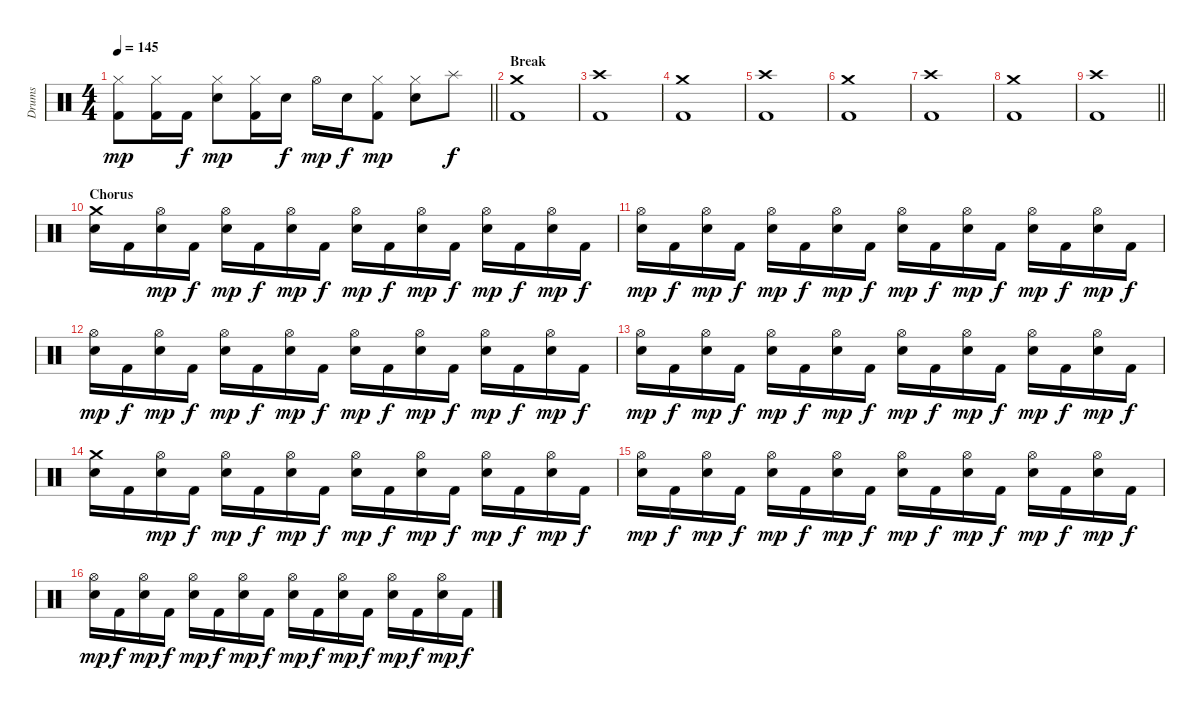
\track ("Drums" "Drums") {instrument percussion}
\staff {score}
\articulation defaults
\ts (4 4)
\tempo 145
\clef neutral
\barLineRight lightlight
\ks c
("Hi-Hat (closed)" "Kick (hit) 2").8{dy mp} ("Hi-Hat (closed)" "Kick (hit) 2").16 "Kick (hit) 2".16{dy f} ("Hi-Hat (closed)" "Snare (hit) 2").8{dy mp} ("Hi-Hat (closed)" "Kick (hit) 2").16 "Snare (hit) 2".16{dy f} "Hi-Hat (open)".16{dy mp} "Snare (hit) 2".16{dy f} ("Hi-Hat (closed)" "Kick (hit) 2").8{dy mp} ("Hi-Hat (closed)" "Snare (hit) 2").8 "Splash (hit)".8{dy f} |
\section ("" "Break")
("Crash medium (hit)" "Kick (hit) 2").1 |
("Crash high (hit)" "Kick (hit) 2").1 |
("Crash medium (hit)" "Kick (hit) 2").1 |
("Crash high (hit)" "Kick (hit) 2").1 |
("Crash medium (hit)" "Kick (hit) 2").1 |
("Crash high (hit)" "Kick (hit) 2").1 |
("Crash medium (hit)" "Kick (hit) 2").1 |
\barLineRight lightlight
("Crash high (hit)" "Kick (hit) 2").1 |
\section ("" "Chorus")
("Crash medium (hit)" "Snare (hit) 2").16 "Kick (hit) 2".16 ("Hi-Hat (open)" "Snare (hit) 2").16{dy mp} "Kick (hit) 2".16{dy f} ("Hi-Hat (open)" "Snare (hit) 2").16{dy mp} "Kick (hit) 2".16{dy f} ("Hi-Hat (open)" "Snare (hit) 2").16{dy mp} "Kick (hit) 2".16{dy f} ("Hi-Hat (open)" "Snare (hit) 2").16{dy mp} "Kick (hit) 2".16{dy f} ("Hi-Hat (open)" "Snare (hit) 2").16{dy mp} "Kick (hit) 2".16{dy f} ("Hi-Hat (open)" "Snare (hit) 2").16{dy mp} "Kick (hit) 2".16{dy f} ("Hi-Hat (open)" "Snare (hit) 2").16{dy mp} "Kick (hit) 2".16{dy f} |
("Hi-Hat (open)" "Snare (hit) 2").16{dy mp} "Kick (hit) 2".16{dy f} ("Hi-Hat (open)" "Snare (hit) 2").16{dy mp} "Kick (hit) 2".16{dy f} ("Hi-Hat (open)" "Snare (hit) 2").16{dy mp} "Kick (hit) 2".16{dy f} ("Hi-Hat (open)" "Snare (hit) 2").16{dy mp} "Kick (hit) 2".16{dy f} ("Hi-Hat (open)" "Snare (hit) 2").16{dy mp} "Kick (hit) 2".16{dy f} ("Hi-Hat (open)" "Snare (hit) 2").16{dy mp} "Kick (hit) 2".16{dy f} ("Hi-Hat (open)" "Snare (hit) 2").16{dy mp} "Kick (hit) 2".16{dy f} ("Hi-Hat (open)" "Snare (hit) 2").16{dy mp} "Kick (hit) 2".16{dy f} |
("Hi-Hat (open)" "Snare (hit) 2").16{dy mp} "Kick (hit) 2".16{dy f} ("Hi-Hat (open)" "Snare (hit) 2").16{dy mp} "Kick (hit) 2".16{dy f} ("Hi-Hat (open)" "Snare (hit) 2").16{dy mp} "Kick (hit) 2".16{dy f} ("Hi-Hat (open)" "Snare (hit) 2").16{dy mp} "Kick (hit) 2".16{dy f} ("Hi-Hat (open)" "Snare (hit) 2").16{dy mp} "Kick (hit) 2".16{dy f} ("Hi-Hat (open)" "Snare (hit) 2").16{dy mp} "Kick (hit) 2".16{dy f} ("Hi-Hat (open)" "Snare (hit) 2").16{dy mp} "Kick (hit) 2".16{dy f} ("Hi-Hat (open)" "Snare (hit) 2").16{dy mp} "Kick (hit) 2".16{dy f} |
("Hi-Hat (open)" "Snare (hit) 2").16{dy mp} "Kick (hit) 2".16{dy f} ("Hi-Hat (open)" "Snare (hit) 2").16{dy mp} "Kick (hit) 2".16{dy f} ("Hi-Hat (open)" "Snare (hit) 2").16{dy mp} "Kick (hit) 2".16{dy f} ("Hi-Hat (open)" "Snare (hit) 2").16{dy mp} "Kick (hit) 2".16{dy f} ("Hi-Hat (open)" "Snare (hit) 2").16{dy mp} "Kick (hit) 2".16{dy f} ("Hi-Hat (open)" "Snare (hit) 2").16{dy mp} "Kick (hit) 2".16{dy f} ("Hi-Hat (open)" "Snare (hit) 2").16{dy mp} "Kick (hit) 2".16{dy f} ("Hi-Hat (open)" "Snare (hit) 2").16{dy mp} "Kick (hit) 2".16{dy f} |
("Crash medium (hit)" "Snare (hit) 2").16 "Kick (hit) 2".16 ("Hi-Hat (open)" "Snare (hit) 2").16{dy mp} "Kick (hit) 2".16{dy f} ("Hi-Hat (open)" "Snare (hit) 2").16{dy mp} "Kick (hit) 2".16{dy f} ("Hi-Hat (open)" "Snare (hit) 2").16{dy mp} "Kick (hit) 2".16{dy f} ("Hi-Hat (open)" "Snare (hit) 2").16{dy mp} "Kick (hit) 2".16{dy f} ("Hi-Hat (open)" "Snare (hit) 2").16{dy mp} "Kick (hit) 2".16{dy f} ("Hi-Hat (open)" "Snare (hit) 2").16{dy mp} "Kick (hit) 2".16{dy f} ("Hi-Hat (open)" "Snare (hit) 2").16{dy mp} "Kick (hit) 2".16{dy f} |
("Hi-Hat (open)" "Snare (hit) 2").16{dy mp} "Kick (hit) 2".16{dy f} ("Hi-Hat (open)" "Snare (hit) 2").16{dy mp} "Kick (hit) 2".16{dy f} ("Hi-Hat (open)" "Snare (hit) 2").16{dy mp} "Kick (hit) 2".16{dy f} ("Hi-Hat (open)" "Snare (hit) 2").16{dy mp} "Kick (hit) 2".16{dy f} ("Hi-Hat (open)" "Snare (hit) 2").16{dy mp} "Kick (hit) 2".16{dy f} ("Hi-Hat (open)" "Snare (hit) 2").16{dy mp} "Kick (hit) 2".16{dy f} ("Hi-Hat (open)" "Snare (hit) 2").16{dy mp} "Kick (hit) 2".16{dy f} ("Hi-Hat (open)" "Snare (hit) 2").16{dy mp} "Kick (hit) 2".16{dy f} |
("Hi-Hat (open)" "Snare (hit) 2").16{dy mp} "Kick (hit) 2".16{dy f} ("Hi-Hat (open)" "Snare (hit) 2").16{dy mp} "Kick (hit) 2".16{dy f} ("Hi-Hat (open)" "Snare (hit) 2").16{dy mp} "Kick (hit) 2".16{dy f} ("Hi-Hat (open)" "Snare (hit) 2").16{dy mp} "Kick (hit) 2".16{dy f} ("Hi-Hat (open)" "Snare (hit) 2").16{dy mp} "Kick (hit) 2".16{dy f} ("Hi-Hat (open)" "Snare (hit) 2").16{dy mp} "Kick (hit) 2".16{dy f} ("Hi-Hat (open)" "Snare (hit) 2").16{dy mp} "Kick (hit) 2".16{dy f} ("Hi-Hat (open)" "Snare (hit) 2").16{dy mp} "Kick (hit) 2".16{dy f}
